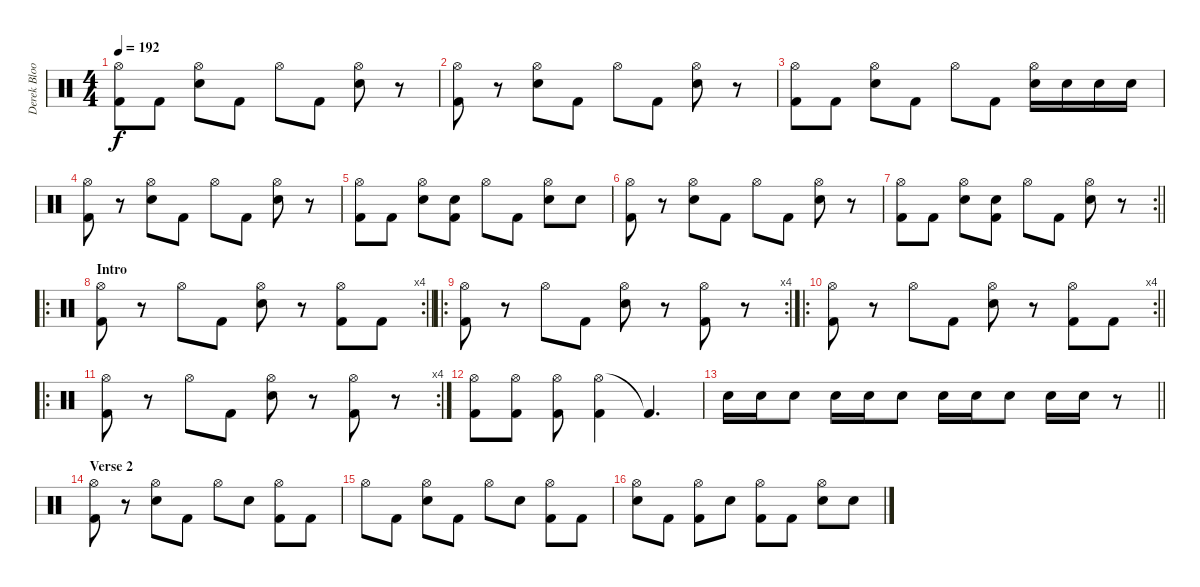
\track ("Derek Bloom" "Derek Bloo") {instrument percussion}
\staff {score}
\articulation defaults
\ts (4 4)
\tempo 192
\clef neutral
\ks c
("Hi-Hat (open)" "Kick (hit) 2").8{dy f} "Kick (hit) 2".8 ("Hi-Hat (open)" "Electric Snare (hit)").8 "Kick (hit) 2".8 "Hi-Hat (open)".8 "Kick (hit) 2".8 ("Hi-Hat (open)" "Electric Snare (hit)").8 r.8 |
("Hi-Hat (open)" "Kick (hit) 2").8 r.8 ("Hi-Hat (open)" "Electric Snare (hit)").8 "Kick (hit) 2".8 "Hi-Hat (open)".8 "Kick (hit) 2".8 ("Hi-Hat (open)" "Electric Snare (hit)").8 r.8 |
("Hi-Hat (open)" "Kick (hit) 2").8 "Kick (hit) 2".8 ("Hi-Hat (open)" "Electric Snare (hit)").8 "Kick (hit) 2".8 "Hi-Hat (open)".8 "Kick (hit) 2".8 ("Hi-Hat (open)" "Electric Snare (hit)").16 "Electric Snare (hit)".16 "Electric Snare (hit)".16 "Electric Snare (hit)".16 |
("Hi-Hat (open)" "Kick (hit) 2").8 r.8 ("Hi-Hat (open)" "Electric Snare (hit)").8 "Kick (hit) 2".8 "Hi-Hat (open)".8 "Kick (hit) 2".8 ("Hi-Hat (open)" "Electric Snare (hit)").8 r.8 |
("Hi-Hat (open)" "Kick (hit) 2").8 "Kick (hit) 2".8 ("Hi-Hat (open)" "Electric Snare (hit)").8 ("Electric Snare (hit)" "Kick (hit) 2").8 "Hi-Hat (open)".8 "Kick (hit) 2".8 ("Hi-Hat (open)" "Electric Snare (hit)").8 "Electric Snare (hit)".8 |
("Hi-Hat (open)" "Kick (hit) 2").8 r.8 ("Hi-Hat (open)" "Electric Snare (hit)").8 "Kick (hit) 2".8 "Hi-Hat (open)".8 "Kick (hit) 2".8 ("Hi-Hat (open)" "Electric Snare (hit)").8 r.8 |
\rc 2
\barLineRight lightlight
("Hi-Hat (open)" "Kick (hit) 2").8 "Kick (hit) 2".8 ("Hi-Hat (open)" "Electric Snare (hit)").8 ("Electric Snare (hit)" "Kick (hit) 2").8 "Hi-Hat (open)".8 "Kick (hit) 2".8 ("Hi-Hat (open)" "Electric Snare (hit)").8 r.8 |
\ro
\rc 4
\section ("" "Intro")
\barLineRight lightlight
("Hi-Hat (open)" "Kick (hit) 2").8 r.8 "Hi-Hat (open)".8 "Kick (hit) 2".8 ("Hi-Hat (open)" "Electric Snare (hit)").8 r.8 ("Hi-Hat (open)" "Kick (hit) 2").8 "Kick (hit) 2".8 |
\ro
\rc 4
("Hi-Hat (open)" "Kick (hit) 2").8 r.8 "Hi-Hat (open)".8 "Kick (hit) 2".8 ("Hi-Hat (open)" "Electric Snare (hit)").8 r.8 ("Hi-Hat (open)" "Kick (hit) 2").8 r.8 |
\ro
\rc 4
\barLineRight lightlight
("Hi-Hat (open)" "Kick (hit) 2").8 r.8 "Hi-Hat (open)".8 "Kick (hit) 2".8 ("Hi-Hat (open)" "Electric Snare (hit)").8 r.8 ("Hi-Hat (open)" "Kick (hit) 2").8 "Kick (hit) 2".8 |
\ro
\rc 4
("Hi-Hat (open)" "Kick (hit) 2").8 r.8 "Hi-Hat (open)".8 "Kick (hit) 2".8 ("Hi-Hat (open)" "Electric Snare (hit)").8 r.8 ("Hi-Hat (open)" "Kick (hit) 2").8 r.8 |
("Hi-Hat (open)" "Kick (hit) 2").8 ("Hi-Hat (open)" "Kick (hit) 2").8 ("Hi-Hat (open)" "Kick (hit) 2").8 ("Hi-Hat (open)" "Kick (hit) 2").4 "Kick (hit) 2"{t}.4{d} |
\barLineRight lightlight "Electric Snare (hit)".16 "Electric Snare (hit)".16 "Electric Snare (hit)".8 "Electric Snare (hit)".16 "Electric Snare (hit)".16 "Electric Snare (hit)".8 "Electric Snare (hit)".16 "Electric Snare (hit)".16 "Electric Snare (hit)".8 "Electric Snare (hit)".16 "Electric Snare (hit)".16
r.8 |
\section ("" "Verse 2")
("Hi-Hat (open)" "Kick (hit) 2").8 r.8 ("Hi-Hat (open)" "Electric Snare (hit)").8 "Kick (hit) 2".8 "Hi-Hat (open)".8 "Electric Snare (hit)".8 ("Hi-Hat (open)" "Kick (hit) 2").8 "Kick (hit) 2".8 |
"Hi-Hat (open)".8 "Kick (hit) 2".8 ("Hi-Hat (open)" "Electric Snare (hit)").8 "Kick (hit) 2".8 "Hi-Hat (open)".8 "Electric Snare (hit)".8 ("Hi-Hat (open)" "Kick (hit) 2").8 "Kick (hit) 2".8 |
("Hi-Hat (open)" "Electric Snare (hit)").8 "Kick (hit) 2".8 ("Hi-Hat (open)" "Kick (hit) 2").8 "Electric Snare (hit)".8 ("Hi-Hat (open)" "Kick (hit) 2").8 "Kick (hit) 2".8 ("Hi-Hat (open)" "Electric Snare (hit)").8 "Electric Snare (hit)".8
